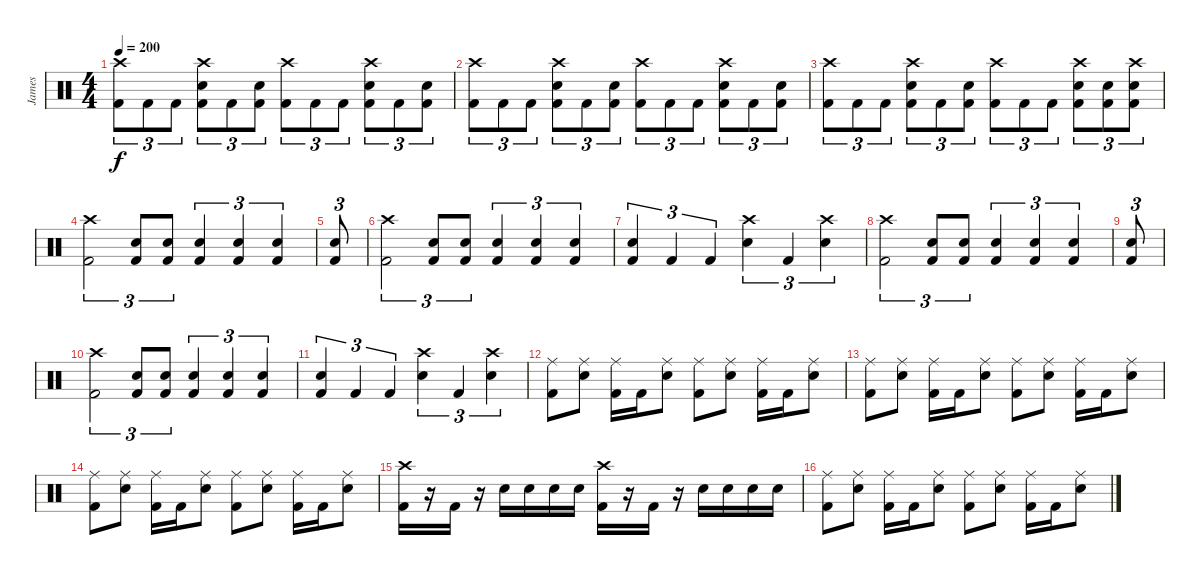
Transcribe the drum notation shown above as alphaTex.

\track ("James" "James") {instrument percussion}
\staff {score}
\articulation defaults
\ts (4 4)
\tempo 200
\clef neutral
\ks c
("Crash high (hit)" "Kick (hit) 2").8{tu (3 2) dy f} "Kick (hit) 2".8{tu (3 2)} "Kick (hit) 2".8{tu (3 2)} ("Electric Snare (hit)" "Crash high (hit)" "Kick (hit) 2").8{tu (3 2)} "Kick (hit) 2".8{tu (3 2)} ("Electric Snare (hit)" "Kick (hit) 2").8{tu (3 2)} ("Crash high (hit)" "Kick (hit) 2").8{tu (3 2)} "Kick (hit) 2".8{tu (3 2)} "Kick (hit) 2".8{tu (3 2)} ("Electric Snare (hit)" "Crash high (hit)" "Kick (hit) 2").8{tu (3 2)} "Kick (hit) 2".8{tu (3 2)} ("Electric Snare (hit)" "Kick (hit) 2").8{tu (3 2)} |
("Crash high (hit)" "Kick (hit) 2").8{tu (3 2)} "Kick (hit) 2".8{tu (3 2)} "Kick (hit) 2".8{tu (3 2)} ("Electric Snare (hit)" "Crash high (hit)" "Kick (hit) 2").8{tu (3 2)} "Kick (hit) 2".8{tu (3 2)} ("Electric Snare (hit)" "Kick (hit) 2").8{tu (3 2)} ("Crash high (hit)" "Kick (hit) 2").8{tu (3 2)} "Kick (hit) 2".8{tu (3 2)} "Kick (hit) 2".8{tu (3 2)} ("Electric Snare (hit)" "Crash high (hit)" "Kick (hit) 2").8{tu (3 2)} "Kick (hit) 2".8{tu (3 2)} ("Electric Snare (hit)" "Kick (hit) 2").8{tu (3 2)} |
("Crash high (hit)" "Kick (hit) 2").8{tu (3 2)} "Kick (hit) 2".8{tu (3 2)} "Kick (hit) 2".8{tu (3 2)} ("Electric Snare (hit)" "Crash high (hit)" "Kick (hit) 2").8{tu (3 2)} "Kick (hit) 2".8{tu (3 2)} ("Electric Snare (hit)" "Kick (hit) 2").8{tu (3 2)} ("Crash high (hit)" "Kick (hit) 2").8{tu (3 2)} "Kick (hit) 2".8{tu (3 2)} "Kick (hit) 2".8{tu (3 2)} ("Electric Snare (hit)" "Crash high (hit)" "Kick (hit) 2").8{tu (3 2)} ("Electric Snare (hit)" "Kick (hit) 2").8{tu (3 2)} ("Electric Snare (hit)" "Crash high (hit)" "Kick (hit) 2").8{tu (3 2)} |
("Crash high (hit)" "Kick (hit) 2").2{tu (3 2)} ("Electric Snare (hit)" "Kick (hit) 2").8{tu (3 2)} ("Electric Snare (hit)" "Kick (hit) 2").8{tu (3 2)} ("Electric Snare (hit)" "Kick (hit) 2").4{tu (3 2)} ("Electric Snare (hit)" "Kick (hit) 2").4{tu (3 2)} ("Electric Snare (hit)" "Kick (hit) 2").4{tu (3 2)} |
("Electric Snare (hit)" "Kick (hit) 2").8{tu (3 2)} |
("Crash high (hit)" "Kick (hit) 2").2{tu (3 2)} ("Electric Snare (hit)" "Kick (hit) 2").8{tu (3 2)} ("Electric Snare (hit)" "Kick (hit) 2").8{tu (3 2)} ("Electric Snare (hit)" "Kick (hit) 2").4{tu (3 2)} ("Electric Snare (hit)" "Kick (hit) 2").4{tu (3 2)} ("Electric Snare (hit)" "Kick (hit) 2").4{tu (3 2)} |
("Electric Snare (hit)" "Kick (hit) 2").4{tu (3 2)} "Kick (hit) 2".4{tu (3 2)} "Kick (hit) 2".4{tu (3 2)} ("Crash high (hit)" "Electric Snare (hit)").4{tu (3 2)} "Kick (hit) 2".4{tu (3 2)} ("Crash high (hit)" "Electric Snare (hit)").4{tu (3 2)} |
("Crash high (hit)" "Kick (hit) 2").2{tu (3 2)} ("Electric Snare (hit)" "Kick (hit) 2").8{tu (3 2)} ("Electric Snare (hit)" "Kick (hit) 2").8{tu (3 2)} ("Electric Snare (hit)" "Kick (hit) 2").4{tu (3 2)} ("Electric Snare (hit)" "Kick (hit) 2").4{tu (3 2)} ("Electric Snare (hit)" "Kick (hit) 2").4{tu (3 2)} |
("Electric Snare (hit)" "Kick (hit) 2").8{tu (3 2)} |
("Crash high (hit)" "Kick (hit) 2").2{tu (3 2)} ("Electric Snare (hit)" "Kick (hit) 2").8{tu (3 2)} ("Electric Snare (hit)" "Kick (hit) 2").8{tu (3 2)} ("Electric Snare (hit)" "Kick (hit) 2").4{tu (3 2)} ("Electric Snare (hit)" "Kick (hit) 2").4{tu (3 2)} ("Electric Snare (hit)" "Kick (hit) 2").4{tu (3 2)} |
("Electric Snare (hit)" "Kick (hit) 2").4{tu (3 2)} "Kick (hit) 2".4{tu (3 2)} "Kick (hit) 2".4{tu (3 2)} ("Crash high (hit)" "Electric Snare (hit)").4{tu (3 2)} "Kick (hit) 2".4{tu (3 2)} ("Crash high (hit)" "Electric Snare (hit)").4{tu (3 2)} |
("Kick (hit) 2" "Ride (middle)").8 ("Electric Snare (hit)" "Ride (middle)").8 ("Kick (hit) 2" "Ride (middle)").16 "Kick (hit) 2".16 ("Electric Snare (hit)" "Ride (middle)").8 ("Kick (hit) 2" "Ride (middle)").8 ("Electric Snare (hit)" "Ride (middle)").8 ("Kick (hit) 2" "Ride (middle)").16 "Kick (hit) 2".16 ("Electric Snare (hit)" "Ride (middle)").8 |
("Kick (hit) 2" "Ride (middle)").8 ("Electric Snare (hit)" "Ride (middle)").8 ("Kick (hit) 2" "Ride (middle)").16 "Kick (hit) 2".16 ("Electric Snare (hit)" "Ride (middle)").8 ("Kick (hit) 2" "Ride (middle)").8 ("Electric Snare (hit)" "Ride (middle)").8 ("Kick (hit) 2" "Ride (middle)").16 "Kick (hit) 2".16 ("Electric Snare (hit)" "Ride (middle)").8 |
("Kick (hit) 2" "Ride (middle)").8 ("Electric Snare (hit)" "Ride (middle)").8 ("Kick (hit) 2" "Ride (middle)").16 "Kick (hit) 2".16 ("Electric Snare (hit)" "Ride (middle)").8 ("Kick (hit) 2" "Ride (middle)").8 ("Electric Snare (hit)" "Ride (middle)").8 ("Kick (hit) 2" "Ride (middle)").16 "Kick (hit) 2".16 ("Electric Snare (hit)" "Ride (middle)").8 |
("Kick (hit) 2" "Crash high (hit)").16 r.16 "Kick (hit) 2".16 r.16 "Electric Snare (hit)".16 "Electric Snare (hit)".16 "Electric Snare (hit)".16 "Electric Snare (hit)".16 ("Kick (hit) 2" "Crash high (hit)").16 r.16 "Kick (hit) 2".16 r.16 "Electric Snare (hit)".16 "Electric Snare (hit)".16 "Electric Snare (hit)".16 "Electric Snare (hit)".16 |
("Kick (hit) 2" "Ride (middle)").8 ("Electric Snare (hit)" "Ride (middle)").8 ("Kick (hit) 2" "Ride (middle)").16 "Kick (hit) 2".16 ("Electric Snare (hit)" "Ride (middle)").8 ("Kick (hit) 2" "Ride (middle)").8 ("Electric Snare (hit)" "Ride (middle)").8 ("Kick (hit) 2" "Ride (middle)").16 "Kick (hit) 2".16 ("Electric Snare (hit)" "Ride (middle)").8
